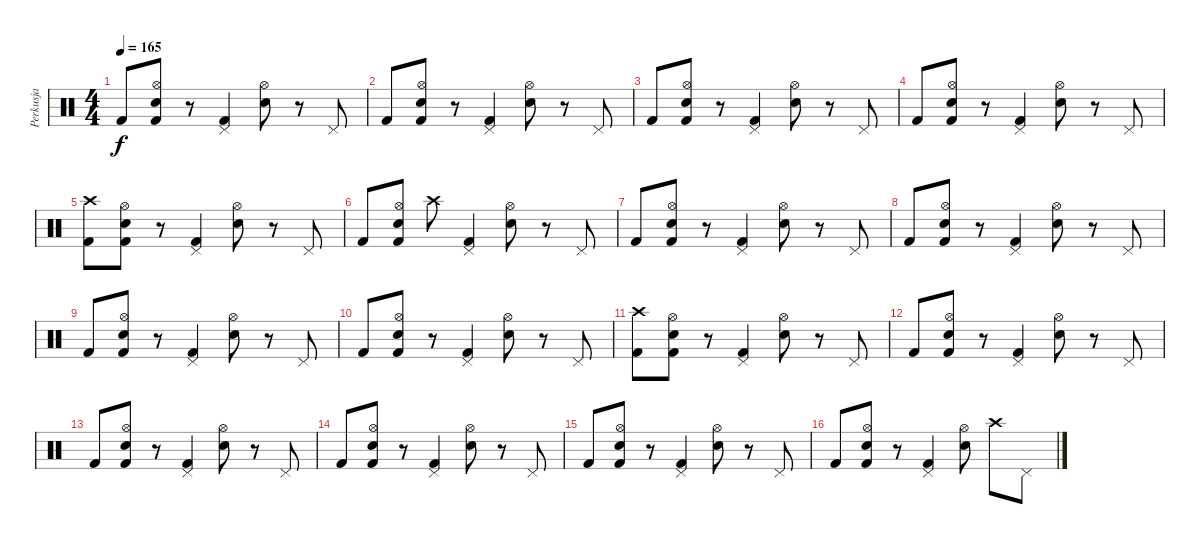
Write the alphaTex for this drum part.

\track ("Perkusja" "Perkusja") {instrument percussion}
\staff {score}
\articulation defaults
\ts (4 4)
\tempo 165
\clef neutral
\ks c "Kick (hit) 2".8{dy f}
("Hi-Hat (open)" "Electric Snare (hit)" "Kick (hit) 2").8 r.8 ("Pedal Hi-Hat (hit)" "Kick (hit) 2").4 ("Hi-Hat (open)" "Electric Snare (hit)").8 r.8 "Pedal Hi-Hat (hit)".8 |
"Kick (hit) 2".8 ("Hi-Hat (open)" "Electric Snare (hit)" "Kick (hit) 2").8 r.8 ("Pedal Hi-Hat (hit)" "Kick (hit) 2").4 ("Hi-Hat (open)" "Electric Snare (hit)").8 r.8 "Pedal Hi-Hat (hit)".8 |
"Kick (hit) 2".8 ("Hi-Hat (open)" "Electric Snare (hit)" "Kick (hit) 2").8 r.8 ("Pedal Hi-Hat (hit)" "Kick (hit) 2").4 ("Hi-Hat (open)" "Electric Snare (hit)").8 r.8 "Pedal Hi-Hat (hit)".8 |
"Kick (hit) 2".8 ("Hi-Hat (open)" "Electric Snare (hit)" "Kick (hit) 2").8 r.8 ("Pedal Hi-Hat (hit)" "Kick (hit) 2").4 ("Hi-Hat (open)" "Electric Snare (hit)").8 r.8 "Pedal Hi-Hat (hit)".8 |
("Crash high (hit)" "Kick (hit) 2").8 ("Hi-Hat (open)" "Electric Snare (hit)" "Kick (hit) 2").8 r.8 ("Pedal Hi-Hat (hit)" "Kick (hit) 2").4 ("Hi-Hat (open)" "Electric Snare (hit)").8 r.8 "Pedal Hi-Hat (hit)".8 |
"Kick (hit) 2".8 ("Hi-Hat (open)" "Electric Snare (hit)" "Kick (hit) 2").8 "Crash high (hit)".8 ("Pedal Hi-Hat (hit)" "Kick (hit) 2").4 ("Hi-Hat (open)" "Electric Snare (hit)").8 r.8 "Pedal Hi-Hat (hit)".8 |
"Kick (hit) 2".8 ("Hi-Hat (open)" "Electric Snare (hit)" "Kick (hit) 2").8 r.8 ("Pedal Hi-Hat (hit)" "Kick (hit) 2").4 ("Hi-Hat (open)" "Electric Snare (hit)").8 r.8 "Pedal Hi-Hat (hit)".8 |
"Kick (hit) 2".8 ("Hi-Hat (open)" "Electric Snare (hit)" "Kick (hit) 2").8 r.8 ("Pedal Hi-Hat (hit)" "Kick (hit) 2").4 ("Hi-Hat (open)" "Electric Snare (hit)").8 r.8 "Pedal Hi-Hat (hit)".8 |
"Kick (hit) 2".8 ("Hi-Hat (open)" "Electric Snare (hit)" "Kick (hit) 2").8 r.8 ("Pedal Hi-Hat (hit)" "Kick (hit) 2").4 ("Hi-Hat (open)" "Electric Snare (hit)").8 r.8 "Pedal Hi-Hat (hit)".8 |
"Kick (hit) 2".8 ("Hi-Hat (open)" "Electric Snare (hit)" "Kick (hit) 2").8 r.8 ("Pedal Hi-Hat (hit)" "Kick (hit) 2").4 ("Hi-Hat (open)" "Electric Snare (hit)").8 r.8 "Pedal Hi-Hat (hit)".8 |
("Crash high (hit)" "Kick (hit) 2").8 ("Hi-Hat (open)" "Electric Snare (hit)" "Kick (hit) 2").8 r.8 ("Pedal Hi-Hat (hit)" "Kick (hit) 2").4 ("Hi-Hat (open)" "Electric Snare (hit)").8 r.8 "Pedal Hi-Hat (hit)".8 |
"Kick (hit) 2".8 ("Hi-Hat (open)" "Electric Snare (hit)" "Kick (hit) 2").8 r.8 ("Pedal Hi-Hat (hit)" "Kick (hit) 2").4 ("Hi-Hat (open)" "Electric Snare (hit)").8 r.8 "Pedal Hi-Hat (hit)".8 |
"Kick (hit) 2".8 ("Hi-Hat (open)" "Electric Snare (hit)" "Kick (hit) 2").8 r.8 ("Pedal Hi-Hat (hit)" "Kick (hit) 2").4 ("Hi-Hat (open)" "Electric Snare (hit)").8 r.8 "Pedal Hi-Hat (hit)".8 |
"Kick (hit) 2".8 ("Hi-Hat (open)" "Electric Snare (hit)" "Kick (hit) 2").8 r.8 ("Pedal Hi-Hat (hit)" "Kick (hit) 2").4 ("Hi-Hat (open)" "Electric Snare (hit)").8 r.8 "Pedal Hi-Hat (hit)".8 |
"Kick (hit) 2".8 ("Hi-Hat (open)" "Electric Snare (hit)" "Kick (hit) 2").8 r.8 ("Pedal Hi-Hat (hit)" "Kick (hit) 2").4 ("Hi-Hat (open)" "Electric Snare (hit)").8 r.8 "Pedal Hi-Hat (hit)".8 |
"Kick (hit) 2".8 ("Hi-Hat (open)" "Electric Snare (hit)" "Kick (hit) 2").8 r.8 ("Pedal Hi-Hat (hit)" "Kick (hit) 2").4 ("Hi-Hat (open)" "Electric Snare (hit)").8 "Crash high (hit)".8 "Pedal Hi-Hat (hit)".8
